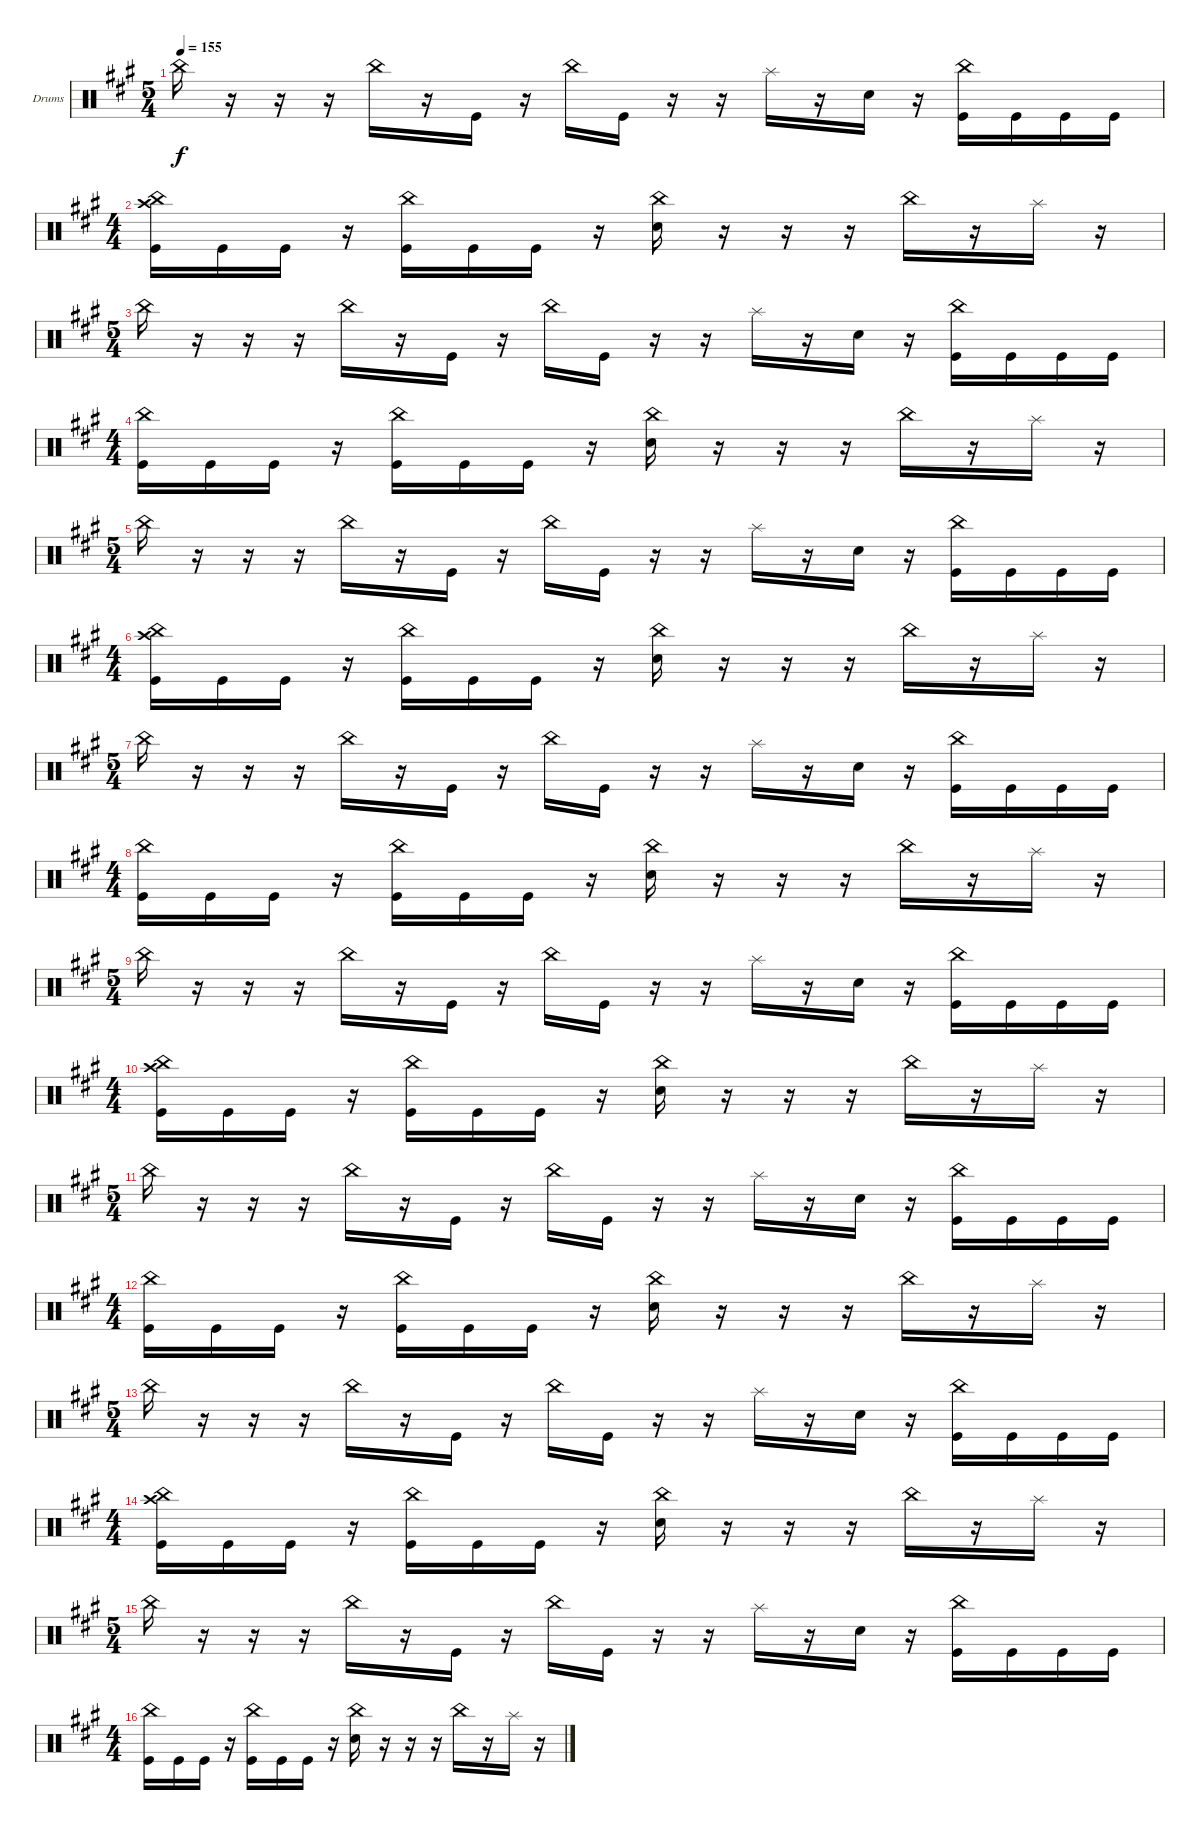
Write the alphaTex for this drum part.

\bracketExtendMode groupsimilarinstruments
\firstSystemTrackNameOrientation horizontal
\otherSystemsTrackNameOrientation horizontal
\track ("Drumkit" "Drums") {instrument percussion}
\staff {score}
\articulation defaults
\ts (5 4)
\tempo 155
\clef neutral
\ks a "China (hit)".16{dy f}
r.16 r.16 r.16 "China (hit)".16 r.16 "Kick (hit)".16 r.16 "China (hit)".16 "Kick (hit)".16 r.16 r.16 "Splash (hit)".16 r.16 "Snare (hit) 2".16 r.16 ("China (hit)" "Kick (hit)").16 "Kick (hit)".16 "Kick (hit)".16 "Kick (hit)".16 |
\ts (4 4)
("China (hit)" "Crash high (hit)" "Kick (hit)").16 "Kick (hit)".16 "Kick (hit)".16 r.16 ("China (hit)" "Kick (hit)").16 "Kick (hit)".16 "Kick (hit)".16 r.16 ("China (hit)" "Snare (hit) 2").16 r.16 r.16 r.16 "China (hit)".16 r.16 "Splash (hit)".16 r.16 |
\ts (5 4)
"China (hit)".16 r.16 r.16 r.16 "China (hit)".16 r.16 "Kick (hit)".16 r.16 "China (hit)".16 "Kick (hit)".16 r.16 r.16 "Splash (hit)".16 r.16 "Snare (hit) 2".16 r.16 ("China (hit)" "Kick (hit)").16 "Kick (hit)".16 "Kick (hit)".16 "Kick (hit)".16 |
\ts (4 4)
("China (hit)" "Kick (hit)").16 "Kick (hit)".16 "Kick (hit)".16 r.16 ("China (hit)" "Kick (hit)").16 "Kick (hit)".16 "Kick (hit)".16 r.16 ("China (hit)" "Snare (hit) 2").16 r.16 r.16 r.16 "China (hit)".16 r.16 "Splash (hit)".16 r.16 |
\ts (5 4)
"China (hit)".16 r.16 r.16 r.16 "China (hit)".16 r.16 "Kick (hit)".16 r.16 "China (hit)".16 "Kick (hit)".16 r.16 r.16 "Splash (hit)".16 r.16 "Snare (hit) 2".16 r.16 ("China (hit)" "Kick (hit)").16 "Kick (hit)".16 "Kick (hit)".16 "Kick (hit)".16 |
\ts (4 4)
("China (hit)" "Crash high (hit)" "Kick (hit)").16 "Kick (hit)".16 "Kick (hit)".16 r.16 ("China (hit)" "Kick (hit)").16 "Kick (hit)".16 "Kick (hit)".16 r.16 ("China (hit)" "Snare (hit) 2").16 r.16 r.16 r.16 "China (hit)".16 r.16 "Splash (hit)".16 r.16 |
\ts (5 4)
"China (hit)".16 r.16 r.16 r.16 "China (hit)".16 r.16 "Kick (hit)".16 r.16 "China (hit)".16 "Kick (hit)".16 r.16 r.16 "Splash (hit)".16 r.16 "Snare (hit) 2".16 r.16 ("China (hit)" "Kick (hit)").16 "Kick (hit)".16 "Kick (hit)".16 "Kick (hit)".16 |
\ts (4 4)
("China (hit)" "Kick (hit)").16 "Kick (hit)".16 "Kick (hit)".16 r.16 ("China (hit)" "Kick (hit)").16 "Kick (hit)".16 "Kick (hit)".16 r.16 ("China (hit)" "Snare (hit) 2").16 r.16 r.16 r.16 "China (hit)".16 r.16 "Splash (hit)".16 r.16 |
\ts (5 4)
"China (hit)".16 r.16 r.16 r.16 "China (hit)".16 r.16 "Kick (hit)".16 r.16 "China (hit)".16 "Kick (hit)".16 r.16 r.16 "Splash (hit)".16 r.16 "Snare (hit) 2".16 r.16 ("China (hit)" "Kick (hit)").16 "Kick (hit)".16 "Kick (hit)".16 "Kick (hit)".16 |
\ts (4 4)
("China (hit)" "Crash high (hit)" "Kick (hit)").16 "Kick (hit)".16 "Kick (hit)".16 r.16 ("China (hit)" "Kick (hit)").16 "Kick (hit)".16 "Kick (hit)".16 r.16 ("China (hit)" "Snare (hit) 2").16 r.16 r.16 r.16 "China (hit)".16 r.16 "Splash (hit)".16 r.16 |
\ts (5 4)
"China (hit)".16 r.16 r.16 r.16 "China (hit)".16 r.16 "Kick (hit)".16 r.16 "China (hit)".16 "Kick (hit)".16 r.16 r.16 "Splash (hit)".16 r.16 "Snare (hit) 2".16 r.16 ("China (hit)" "Kick (hit)").16 "Kick (hit)".16 "Kick (hit)".16 "Kick (hit)".16 |
\ts (4 4)
("China (hit)" "Kick (hit)").16 "Kick (hit)".16 "Kick (hit)".16 r.16 ("China (hit)" "Kick (hit)").16 "Kick (hit)".16 "Kick (hit)".16 r.16 ("China (hit)" "Snare (hit) 2").16 r.16 r.16 r.16 "China (hit)".16 r.16 "Splash (hit)".16 r.16 |
\ts (5 4)
"China (hit)".16 r.16 r.16 r.16 "China (hit)".16 r.16 "Kick (hit)".16 r.16 "China (hit)".16 "Kick (hit)".16 r.16 r.16 "Splash (hit)".16 r.16 "Snare (hit) 2".16 r.16 ("China (hit)" "Kick (hit)").16 "Kick (hit)".16 "Kick (hit)".16 "Kick (hit)".16 |
\ts (4 4)
("China (hit)" "Crash high (hit)" "Kick (hit)").16 "Kick (hit)".16 "Kick (hit)".16 r.16 ("China (hit)" "Kick (hit)").16 "Kick (hit)".16 "Kick (hit)".16 r.16 ("China (hit)" "Snare (hit) 2").16 r.16 r.16 r.16 "China (hit)".16 r.16 "Splash (hit)".16 r.16 |
\ts (5 4)
"China (hit)".16 r.16 r.16 r.16 "China (hit)".16 r.16 "Kick (hit)".16 r.16 "China (hit)".16 "Kick (hit)".16 r.16 r.16 "Splash (hit)".16 r.16 "Snare (hit) 2".16 r.16 ("China (hit)" "Kick (hit)").16 "Kick (hit)".16 "Kick (hit)".16 "Kick (hit)".16 |
\ts (4 4)
("China (hit)" "Kick (hit)").16 "Kick (hit)".16 "Kick (hit)".16 r.16 ("China (hit)" "Kick (hit)").16 "Kick (hit)".16 "Kick (hit)".16 r.16 ("China (hit)" "Snare (hit) 2").16 r.16 r.16 r.16 "China (hit)".16 r.16 "Splash (hit)".16 r.16
